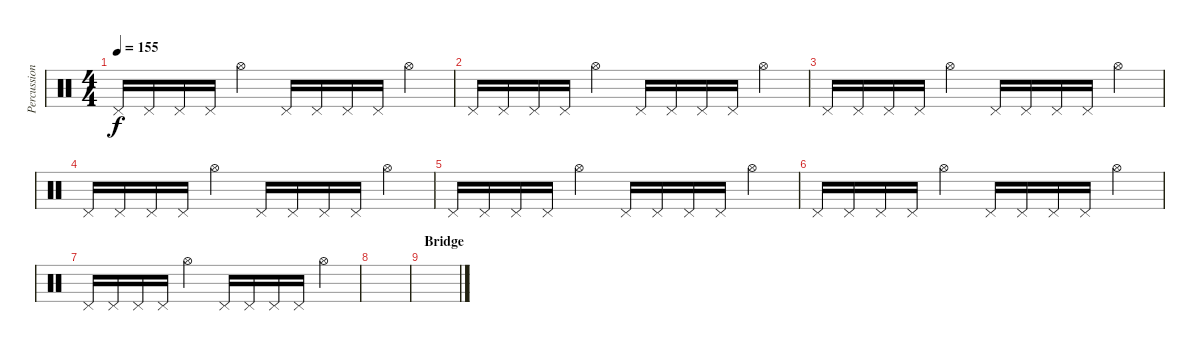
\track ("Percussion" "Percussion") {instrument percussion}
\staff {score}
\articulation defaults
\ts (4 4)
\tempo 155
\clef neutral
\ks c "Pedal Hi-Hat (hit)".16{dy f} "Pedal Hi-Hat (hit)".16 "Pedal Hi-Hat (hit)".16 "Pedal Hi-Hat (hit)".16 "Hi-Hat (open)".4 "Pedal Hi-Hat (hit)".16 "Pedal Hi-Hat (hit)".16 "Pedal Hi-Hat (hit)".16 "Pedal Hi-Hat (hit)".16 "Hi-Hat (open)".4
|
"Pedal Hi-Hat (hit)".16 "Pedal Hi-Hat (hit)".16 "Pedal Hi-Hat (hit)".16 "Pedal Hi-Hat (hit)".16 "Hi-Hat (open)".4 "Pedal Hi-Hat (hit)".16 "Pedal Hi-Hat (hit)".16 "Pedal Hi-Hat (hit)".16 "Pedal Hi-Hat (hit)".16 "Hi-Hat (open)".4 |
"Pedal Hi-Hat (hit)".16 "Pedal Hi-Hat (hit)".16 "Pedal Hi-Hat (hit)".16 "Pedal Hi-Hat (hit)".16 "Hi-Hat (open)".4 "Pedal Hi-Hat (hit)".16 "Pedal Hi-Hat (hit)".16 "Pedal Hi-Hat (hit)".16 "Pedal Hi-Hat (hit)".16 "Hi-Hat (open)".4 |
"Pedal Hi-Hat (hit)".16 "Pedal Hi-Hat (hit)".16 "Pedal Hi-Hat (hit)".16 "Pedal Hi-Hat (hit)".16 "Hi-Hat (open)".4 "Pedal Hi-Hat (hit)".16 "Pedal Hi-Hat (hit)".16 "Pedal Hi-Hat (hit)".16 "Pedal Hi-Hat (hit)".16 "Hi-Hat (open)".4 |
"Pedal Hi-Hat (hit)".16 "Pedal Hi-Hat (hit)".16 "Pedal Hi-Hat (hit)".16 "Pedal Hi-Hat (hit)".16 "Hi-Hat (open)".4 "Pedal Hi-Hat (hit)".16 "Pedal Hi-Hat (hit)".16 "Pedal Hi-Hat (hit)".16 "Pedal Hi-Hat (hit)".16 "Hi-Hat (open)".4 |
"Pedal Hi-Hat (hit)".16 "Pedal Hi-Hat (hit)".16 "Pedal Hi-Hat (hit)".16 "Pedal Hi-Hat (hit)".16 "Hi-Hat (open)".4 "Pedal Hi-Hat (hit)".16 "Pedal Hi-Hat (hit)".16 "Pedal Hi-Hat (hit)".16 "Pedal Hi-Hat (hit)".16 "Hi-Hat (open)".4 |
"Pedal Hi-Hat (hit)".16 "Pedal Hi-Hat (hit)".16 "Pedal Hi-Hat (hit)".16 "Pedal Hi-Hat (hit)".16 "Hi-Hat (open)".4 "Pedal Hi-Hat (hit)".16 "Pedal Hi-Hat (hit)".16 "Pedal Hi-Hat (hit)".16 "Pedal Hi-Hat (hit)".16 "Hi-Hat (open)".4 |
|
\section ("" "Bridge")
